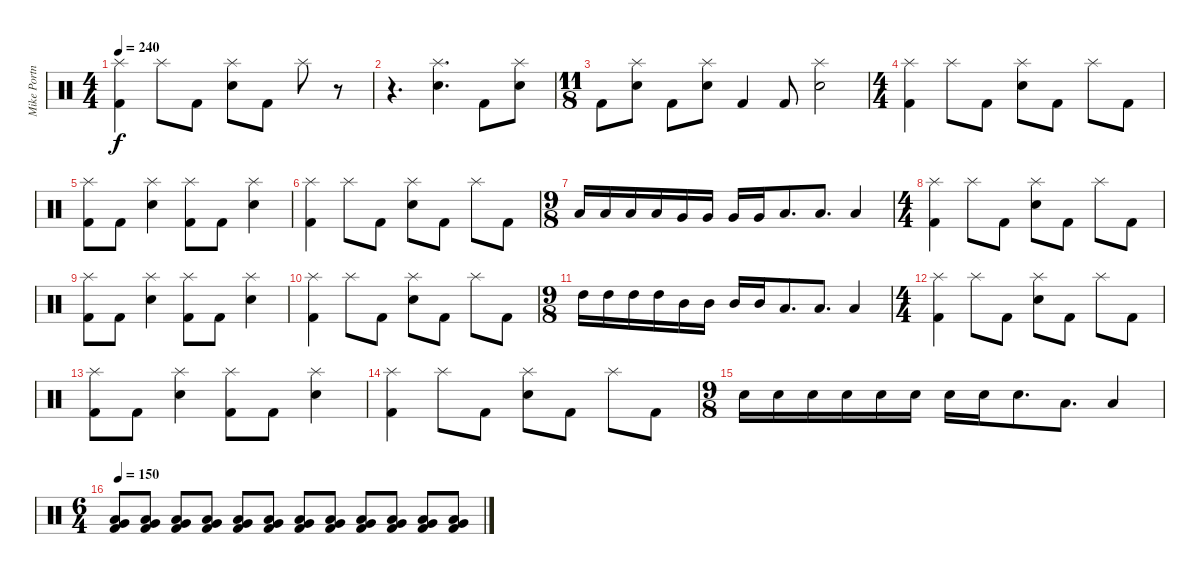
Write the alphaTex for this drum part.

\track ("Mike Portnoy" "Mike Portn") {instrument percussion}
\staff {score}
\articulation defaults
\ts (4 4)
\tempo 240
\clef neutral
\ks c
("Kick (hit) 2" "Splash (hit)").4{dy f} "Splash (hit)".8 "Kick (hit) 2".8 ("Electric Snare (hit)" "Splash (hit)").8 "Kick (hit) 2".8 "Splash (hit)".8 r.8 |
r.4{d} ("Electric Snare (hit)" "Splash (hit)").4{d} "Kick (hit) 2".8 ("Electric Snare (hit)" "Splash (hit)").8 |
\ts (11 8)
"Kick (hit) 2".8 ("Electric Snare (hit)" "Splash (hit)").8 "Kick (hit) 2".8 ("Electric Snare (hit)" "Splash (hit)").8 "Kick (hit) 2".4 "Kick (hit) 2".8 ("Electric Snare (hit)" "Splash (hit)").2 |
\ts (4 4)
("Kick (hit) 2" "Splash (hit)").4 "Splash (hit)".8 "Kick (hit) 2".8 ("Electric Snare (hit)" "Splash (hit)").8 "Kick (hit) 2".8 "Splash (hit)".8 "Kick (hit) 2".8 |
("Kick (hit) 2" "Splash (hit)").8 "Kick (hit) 2".8 ("Electric Snare (hit)" "Splash (hit)").4 ("Kick (hit) 2" "Splash (hit)").8 "Kick (hit) 2".8 ("Electric Snare (hit)" "Splash (hit)").4 |
("Kick (hit) 2" "Splash (hit)").4 "Splash (hit)".8 "Kick (hit) 2".8 ("Electric Snare (hit)" "Splash (hit)").8 "Kick (hit) 2".8 "Splash (hit)".8 "Kick (hit) 2".8 |
\ts (9 8)
"Low Tom (hit)".16 "Low Tom (hit)".16 "Low Tom (hit)".16 "Low Tom (hit)".16 "Very Low Tom (hit)".16 "Very Low Tom (hit)".16 "Very Low Tom (hit)".16 "Very Low Tom (hit)".16 "Low Floor Tom (hit)".8{d} "Low Floor Tom (hit)".8{d} "Low Floor Tom (hit)".4 |
\ts (4 4)
("Kick (hit) 2" "Splash (hit)").4 "Splash (hit)".8 "Kick (hit) 2".8 ("Electric Snare (hit)" "Splash (hit)").8 "Kick (hit) 2".8 "Splash (hit)".8 "Kick (hit) 2".8 |
("Kick (hit) 2" "Splash (hit)").8 "Kick (hit) 2".8 ("Electric Snare (hit)" "Splash (hit)").4 ("Kick (hit) 2" "Splash (hit)").8 "Kick (hit) 2".8 ("Electric Snare (hit)" "Splash (hit)").4 |
("Kick (hit) 2" "Splash (hit)").4 "Splash (hit)".8 "Kick (hit) 2".8 ("Electric Snare (hit)" "Splash (hit)").8 "Kick (hit) 2".8 "Splash (hit)".8 "Kick (hit) 2".8 |
\ts (9 8)
"High Tom (hit)".16 "High Tom (hit)".16 "High Tom (hit)".16 "High Tom (hit)".16 "Mid Tom (hit)".16 "Mid Tom (hit)".16 "Mid Tom (hit)".16 "Mid Tom (hit)".16 "Low Tom (hit)".8{d} "Low Tom (hit)".8{d} "Low Tom (hit)".4 |
\ts (4 4)
("Kick (hit) 2" "Splash (hit)").4 "Splash (hit)".8 "Kick (hit) 2".8 ("Electric Snare (hit)" "Splash (hit)").8 "Kick (hit) 2".8 "Splash (hit)".8 "Kick (hit) 2".8 |
("Kick (hit) 2" "Splash (hit)").8 "Kick (hit) 2".8 ("Electric Snare (hit)" "Splash (hit)").4 ("Kick (hit) 2" "Splash (hit)").8 "Kick (hit) 2".8 ("Electric Snare (hit)" "Splash (hit)").4 |
("Kick (hit) 2" "Splash (hit)").4 "Splash (hit)".8 "Kick (hit) 2".8 ("Electric Snare (hit)" "Splash (hit)").8 "Kick (hit) 2".8 "Splash (hit)".8 "Kick (hit) 2".8 |
\ts (9 8)
"Electric Snare (hit)".16 "Electric Snare (hit)".16 "Electric Snare (hit)".16 "Electric Snare (hit)".16 "Electric Snare (hit)".16 "Electric Snare (hit)".16 "Electric Snare (hit)".16 "Electric Snare (hit)".16 "Electric Snare (hit)".8{d} "Low Tom (hit)".8{d} "Low Floor Tom (hit)".4 |
\ts (6 4)
\tempo 150
("Kick (hit) 2" "Very Low Tom (hit)" "Low Tom (hit)").8 ("Kick (hit) 2" "Very Low Tom (hit)" "Low Tom (hit)").8 ("Kick (hit) 2" "Very Low Tom (hit)" "Low Tom (hit)").8 ("Kick (hit) 2" "Very Low Tom (hit)" "Low Tom (hit)").8 ("Kick (hit) 2" "Very Low Tom (hit)" "Low Tom (hit)").8 ("Kick (hit) 2" "Very Low Tom (hit)" "Low Tom (hit)").8 ("Kick (hit) 2" "Very Low Tom (hit)" "Low Tom (hit)").8 ("Kick (hit) 2" "Very Low Tom (hit)" "Low Tom (hit)").8 ("Kick (hit) 2" "Very Low Tom (hit)" "Low Tom (hit)").8 ("Kick (hit) 2" "Very Low Tom (hit)" "Low Tom (hit)").8 ("Kick (hit) 2" "Very Low Tom (hit)" "Low Tom (hit)").8 ("Kick (hit) 2" "Very Low Tom (hit)" "Low Tom (hit)").8
